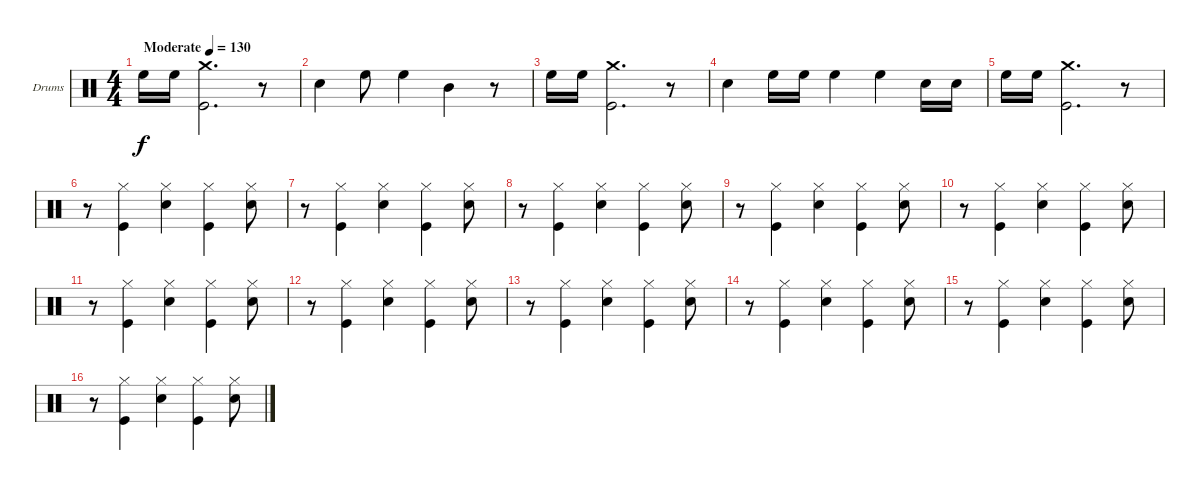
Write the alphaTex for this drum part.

\bracketExtendMode groupsimilarinstruments
\firstSystemTrackNameOrientation horizontal
\otherSystemsTrackNameOrientation horizontal
\track ("Drumkit" "Drums") {instrument percussion}
\staff {score}
\articulation defaults
\ts (4 4)
\beaming (8 2 2 2 2)
\tempo (130 "Moderate")
\clef neutral
\ks c "High Floor Tom (hit)".16{dy f} "High Floor Tom (hit)".16
("Crash medium (hit)" "Kick (hit)").2{d} r.8 |
"Snare (hit) 2".4 "High Floor Tom (hit)".8 "High Floor Tom (hit)".4 "Mid Tom (hit)".4 r.8 |
"High Floor Tom (hit)".16 "High Floor Tom (hit)".16 ("Crash medium (hit)" "Kick (hit)").2{d} r.8 |
"Snare (hit) 2".4 "High Floor Tom (hit)".16 "High Floor Tom (hit)".16 "High Floor Tom (hit)".4 "High Floor Tom (hit)".4 "Snare (hit) 2".16 "Snare (hit) 2".16 |
"High Floor Tom (hit)".16 "High Floor Tom (hit)".16 ("Crash medium (hit)" "Kick (hit)").2{d} r.8 |
r.8 ("Hi-Hat (closed)" "Kick (hit)").4 ("Hi-Hat (closed)" "Snare (hit) 2").4 ("Hi-Hat (closed)" "Kick (hit)").4 ("Hi-Hat (closed)" "Snare (hit) 2").8 |
r.8 ("Hi-Hat (closed)" "Kick (hit)").4 ("Hi-Hat (closed)" "Snare (hit) 2").4 ("Hi-Hat (closed)" "Kick (hit)").4 ("Hi-Hat (closed)" "Snare (hit) 2").8 |
r.8 ("Hi-Hat (closed)" "Kick (hit)").4 ("Hi-Hat (closed)" "Snare (hit) 2").4 ("Hi-Hat (closed)" "Kick (hit)").4 ("Hi-Hat (closed)" "Snare (hit) 2").8 |
r.8 ("Hi-Hat (closed)" "Kick (hit)").4 ("Hi-Hat (closed)" "Snare (hit) 2").4 ("Hi-Hat (closed)" "Kick (hit)").4 ("Hi-Hat (closed)" "Snare (hit) 2").8 |
r.8 ("Hi-Hat (closed)" "Kick (hit)").4 ("Hi-Hat (closed)" "Snare (hit) 2").4 ("Hi-Hat (closed)" "Kick (hit)").4 ("Hi-Hat (closed)" "Snare (hit) 2").8 |
r.8 ("Hi-Hat (closed)" "Kick (hit)").4 ("Hi-Hat (closed)" "Snare (hit) 2").4 ("Hi-Hat (closed)" "Kick (hit)").4 ("Hi-Hat (closed)" "Snare (hit) 2").8 |
r.8 ("Hi-Hat (closed)" "Kick (hit)").4 ("Hi-Hat (closed)" "Snare (hit) 2").4 ("Hi-Hat (closed)" "Kick (hit)").4 ("Hi-Hat (closed)" "Snare (hit) 2").8 |
r.8 ("Hi-Hat (closed)" "Kick (hit)").4 ("Hi-Hat (closed)" "Snare (hit) 2").4 ("Hi-Hat (closed)" "Kick (hit)").4 ("Hi-Hat (closed)" "Snare (hit) 2").8 |
r.8 ("Hi-Hat (closed)" "Kick (hit)").4 ("Hi-Hat (closed)" "Snare (hit) 2").4 ("Hi-Hat (closed)" "Kick (hit)").4 ("Hi-Hat (closed)" "Snare (hit) 2").8 |
r.8 ("Hi-Hat (closed)" "Kick (hit)").4 ("Hi-Hat (closed)" "Snare (hit) 2").4 ("Hi-Hat (closed)" "Kick (hit)").4 ("Hi-Hat (closed)" "Snare (hit) 2").8 |
r.8 ("Hi-Hat (closed)" "Kick (hit)").4 ("Hi-Hat (closed)" "Snare (hit) 2").4 ("Hi-Hat (closed)" "Kick (hit)").4 ("Hi-Hat (closed)" "Snare (hit) 2").8
